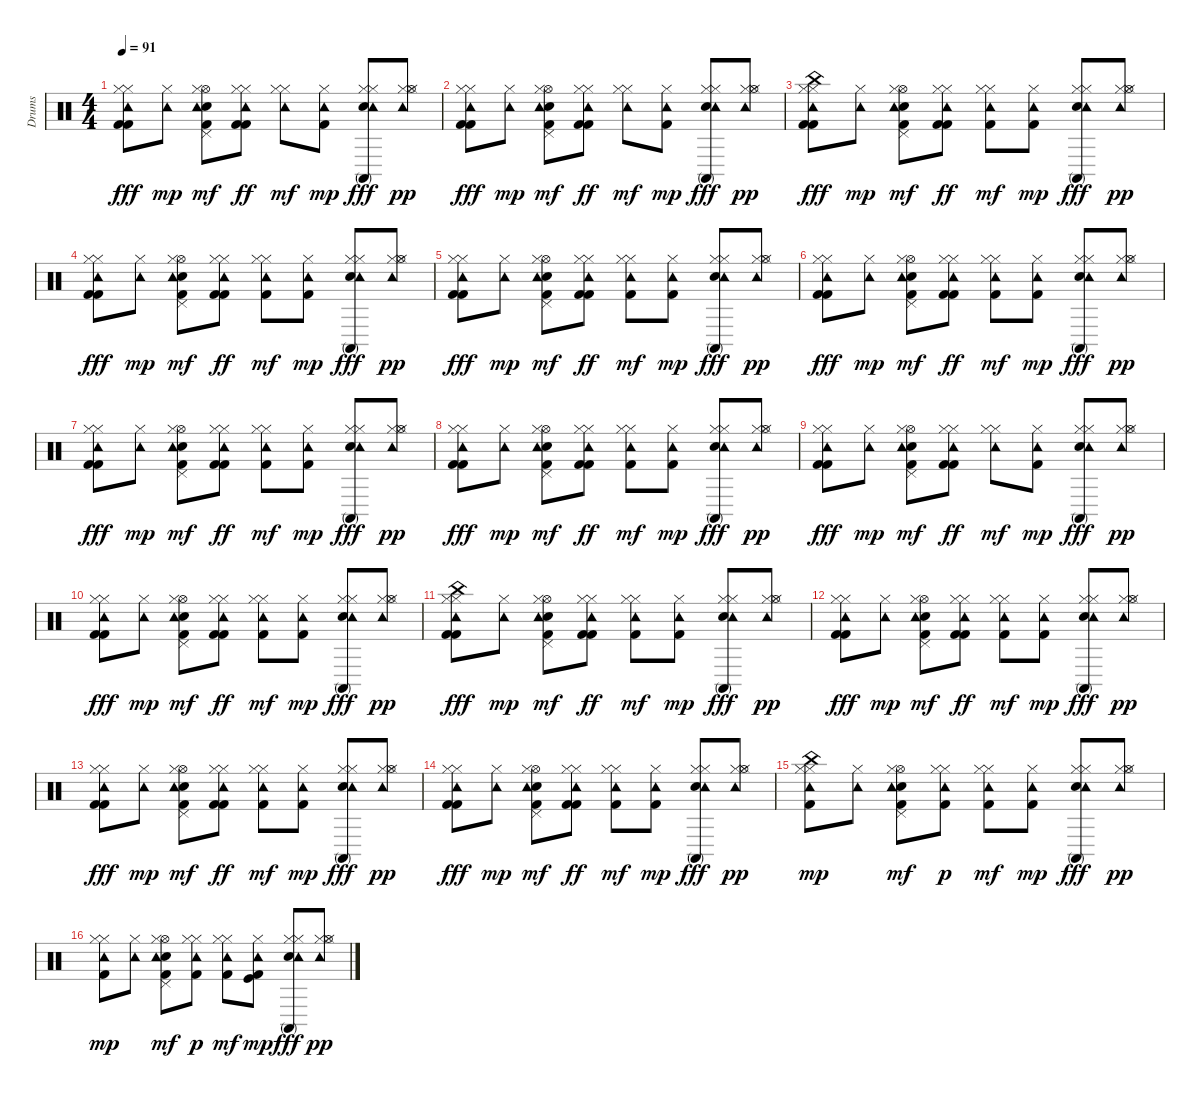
\track ("Drums" "Drums") {instrument percussion}
\staff {score}
\articulation defaults
\ts (4 4)
\tempo 91
\clef neutral
\ks c
("Hi-Hat (closed)" "Kick (hit) 2" "Hi-Hat (closed)" "Tambourine (hit)" "Kick (hit) 2").8{dy fff} ("Hi-Hat (closed)" "Tambourine (hit)").8{dy mp} ("Kick (hit) 2" "Pedal Hi-Hat (hit)" "Hi-Hat (open)" "Snare (hit) 2" "Hi-Hat (closed)" "Tambourine (hit)").8{dy mf} ("Hi-Hat (closed)" "Kick (hit) 2" "Hi-Hat (closed)" "Tambourine (hit)" "Kick (hit) 2").8{dy ff} ("Hi-Hat (closed)" "Hi-Hat (closed)" "Tambourine (hit)").8{dy mf} ("Kick (hit) 2" "Hi-Hat (closed)" "Tambourine (hit)").8{dy mp} ("Hi-Hat (closed)" "Snare (hit) 2" "Hi-Hat (closed)" "Tambourine (hit)" "Conga high (mute)").8{dy fff} ("Hi-Hat (closed)" "Hi-Hat (closed)" "Hi-Hat (open)" "Tambourine (hit)").8{dy pp} |
("Hi-Hat (closed)" "Kick (hit) 2" "Hi-Hat (closed)" "Tambourine (hit)" "Kick (hit) 2").8{dy fff} ("Hi-Hat (closed)" "Tambourine (hit)").8{dy mp} ("Kick (hit) 2" "Pedal Hi-Hat (hit)" "Hi-Hat (open)" "Snare (hit) 2" "Hi-Hat (closed)" "Tambourine (hit)").8{dy mf} ("Hi-Hat (closed)" "Kick (hit) 2" "Hi-Hat (closed)" "Tambourine (hit)" "Kick (hit) 2").8{dy ff} ("Hi-Hat (closed)" "Hi-Hat (closed)" "Tambourine (hit)").8{dy mf} ("Kick (hit) 2" "Hi-Hat (closed)" "Tambourine (hit)").8{dy mp} ("Hi-Hat (closed)" "Snare (hit) 2" "Hi-Hat (closed)" "Tambourine (hit)" "Conga high (mute)").8{dy fff} ("Hi-Hat (closed)" "Hi-Hat (closed)" "Hi-Hat (open)" "Tambourine (hit)").8{dy pp} |
("Hi-Hat (closed)" "Kick (hit) 2" "Hi-Hat (closed)" "China (hit)" "Tambourine (hit)" "Kick (hit) 2").8{dy fff} ("Hi-Hat (closed)" "Tambourine (hit)").8{dy mp} ("Kick (hit) 2" "Pedal Hi-Hat (hit)" "Hi-Hat (open)" "Snare (hit) 2" "Hi-Hat (closed)" "Tambourine (hit)").8{dy mf} ("Hi-Hat (closed)" "Kick (hit) 2" "Hi-Hat (closed)" "Tambourine (hit)" "Kick (hit) 2").8{dy ff} ("Hi-Hat (closed)" "Kick (hit) 2" "Hi-Hat (closed)" "Tambourine (hit)").8{dy mf} ("Kick (hit) 2" "Hi-Hat (closed)" "Tambourine (hit)").8{dy mp} ("Hi-Hat (closed)" "Snare (hit) 2" "Hi-Hat (closed)" "Tambourine (hit)" "Conga high (mute)").8{dy fff} ("Hi-Hat (closed)" "Hi-Hat (closed)" "Hi-Hat (open)" "Tambourine (hit)").8{dy pp} |
("Hi-Hat (closed)" "Kick (hit) 2" "Hi-Hat (closed)" "Tambourine (hit)" "Kick (hit) 2").8{dy fff} ("Hi-Hat (closed)" "Tambourine (hit)").8{dy mp} ("Kick (hit) 2" "Pedal Hi-Hat (hit)" "Hi-Hat (open)" "Snare (hit) 2" "Hi-Hat (closed)" "Tambourine (hit)").8{dy mf} ("Hi-Hat (closed)" "Kick (hit) 2" "Hi-Hat (closed)" "Tambourine (hit)" "Kick (hit) 2").8{dy ff} ("Hi-Hat (closed)" "Kick (hit) 2" "Hi-Hat (closed)" "Tambourine (hit)").8{dy mf} ("Kick (hit) 2" "Hi-Hat (closed)" "Tambourine (hit)").8{dy mp} ("Hi-Hat (closed)" "Snare (hit) 2" "Hi-Hat (closed)" "Tambourine (hit)" "Conga high (mute)").8{dy fff} ("Hi-Hat (closed)" "Hi-Hat (closed)" "Hi-Hat (open)" "Tambourine (hit)").8{dy pp} |
("Hi-Hat (closed)" "Kick (hit) 2" "Hi-Hat (closed)" "Tambourine (hit)" "Kick (hit) 2").8{dy fff} ("Hi-Hat (closed)" "Tambourine (hit)").8{dy mp} ("Kick (hit) 2" "Pedal Hi-Hat (hit)" "Hi-Hat (open)" "Snare (hit) 2" "Hi-Hat (closed)" "Tambourine (hit)").8{dy mf} ("Hi-Hat (closed)" "Kick (hit) 2" "Hi-Hat (closed)" "Tambourine (hit)" "Kick (hit) 2").8{dy ff} ("Hi-Hat (closed)" "Kick (hit) 2" "Hi-Hat (closed)" "Tambourine (hit)").8{dy mf} ("Kick (hit) 2" "Hi-Hat (closed)" "Tambourine (hit)").8{dy mp} ("Hi-Hat (closed)" "Snare (hit) 2" "Hi-Hat (closed)" "Tambourine (hit)" "Conga high (mute)").8{dy fff} ("Hi-Hat (closed)" "Hi-Hat (closed)" "Hi-Hat (open)" "Tambourine (hit)").8{dy pp} |
("Hi-Hat (closed)" "Kick (hit) 2" "Hi-Hat (closed)" "Tambourine (hit)" "Kick (hit) 2").8{dy fff} ("Hi-Hat (closed)" "Tambourine (hit)").8{dy mp} ("Kick (hit) 2" "Pedal Hi-Hat (hit)" "Hi-Hat (open)" "Snare (hit) 2" "Hi-Hat (closed)" "Tambourine (hit)").8{dy mf} ("Hi-Hat (closed)" "Kick (hit) 2" "Hi-Hat (closed)" "Tambourine (hit)" "Kick (hit) 2").8{dy ff} ("Hi-Hat (closed)" "Kick (hit) 2" "Hi-Hat (closed)" "Tambourine (hit)").8{dy mf} ("Kick (hit) 2" "Hi-Hat (closed)" "Tambourine (hit)").8{dy mp} ("Hi-Hat (closed)" "Snare (hit) 2" "Hi-Hat (closed)" "Tambourine (hit)" "Conga high (mute)").8{dy fff} ("Hi-Hat (closed)" "Hi-Hat (closed)" "Hi-Hat (open)" "Tambourine (hit)").8{dy pp} |
("Hi-Hat (closed)" "Kick (hit) 2" "Hi-Hat (closed)" "Tambourine (hit)" "Kick (hit) 2").8{dy fff} ("Hi-Hat (closed)" "Tambourine (hit)").8{dy mp} ("Kick (hit) 2" "Pedal Hi-Hat (hit)" "Hi-Hat (open)" "Snare (hit) 2" "Hi-Hat (closed)" "Tambourine (hit)").8{dy mf} ("Hi-Hat (closed)" "Kick (hit) 2" "Hi-Hat (closed)" "Tambourine (hit)" "Kick (hit) 2").8{dy ff} ("Hi-Hat (closed)" "Kick (hit) 2" "Hi-Hat (closed)" "Tambourine (hit)").8{dy mf} ("Kick (hit) 2" "Hi-Hat (closed)" "Tambourine (hit)").8{dy mp} ("Hi-Hat (closed)" "Snare (hit) 2" "Hi-Hat (closed)" "Tambourine (hit)" "Conga high (mute)").8{dy fff} ("Hi-Hat (closed)" "Hi-Hat (closed)" "Hi-Hat (open)" "Tambourine (hit)").8{dy pp} |
("Hi-Hat (closed)" "Kick (hit) 2" "Hi-Hat (closed)" "Tambourine (hit)" "Kick (hit) 2").8{dy fff} ("Hi-Hat (closed)" "Tambourine (hit)").8{dy mp} ("Kick (hit) 2" "Pedal Hi-Hat (hit)" "Hi-Hat (open)" "Snare (hit) 2" "Hi-Hat (closed)" "Tambourine (hit)").8{dy mf} ("Hi-Hat (closed)" "Kick (hit) 2" "Hi-Hat (closed)" "Tambourine (hit)" "Kick (hit) 2").8{dy ff} ("Hi-Hat (closed)" "Kick (hit) 2" "Hi-Hat (closed)" "Tambourine (hit)").8{dy mf} ("Kick (hit) 2" "Hi-Hat (closed)" "Tambourine (hit)").8{dy mp} ("Hi-Hat (closed)" "Snare (hit) 2" "Hi-Hat (closed)" "Tambourine (hit)" "Conga high (mute)").8{dy fff} ("Hi-Hat (closed)" "Hi-Hat (closed)" "Hi-Hat (open)" "Tambourine (hit)").8{dy pp} |
("Hi-Hat (closed)" "Kick (hit) 2" "Hi-Hat (closed)" "Tambourine (hit)" "Kick (hit) 2").8{dy fff} ("Hi-Hat (closed)" "Tambourine (hit)").8{dy mp} ("Kick (hit) 2" "Pedal Hi-Hat (hit)" "Hi-Hat (open)" "Snare (hit) 2" "Hi-Hat (closed)" "Tambourine (hit)").8{dy mf} ("Hi-Hat (closed)" "Kick (hit) 2" "Hi-Hat (closed)" "Tambourine (hit)" "Kick (hit) 2").8{dy ff} ("Hi-Hat (closed)" "Hi-Hat (closed)" "Tambourine (hit)").8{dy mf} ("Kick (hit) 2" "Hi-Hat (closed)" "Tambourine (hit)").8{dy mp} ("Hi-Hat (closed)" "Snare (hit) 2" "Hi-Hat (closed)" "Tambourine (hit)" "Conga high (mute)").8{dy fff} ("Hi-Hat (closed)" "Hi-Hat (closed)" "Hi-Hat (open)" "Tambourine (hit)").8{dy pp} |
("Hi-Hat (closed)" "Kick (hit) 2" "Hi-Hat (closed)" "Tambourine (hit)" "Kick (hit) 2").8{dy fff} ("Hi-Hat (closed)" "Tambourine (hit)").8{dy mp} ("Kick (hit) 2" "Pedal Hi-Hat (hit)" "Hi-Hat (open)" "Snare (hit) 2" "Hi-Hat (closed)" "Tambourine (hit)").8{dy mf} ("Hi-Hat (closed)" "Kick (hit) 2" "Hi-Hat (closed)" "Tambourine (hit)" "Kick (hit) 2").8{dy ff} ("Hi-Hat (closed)" "Kick (hit) 2" "Hi-Hat (closed)" "Tambourine (hit)").8{dy mf} ("Kick (hit) 2" "Hi-Hat (closed)" "Tambourine (hit)").8{dy mp} ("Hi-Hat (closed)" "Snare (hit) 2" "Hi-Hat (closed)" "Tambourine (hit)" "Conga high (mute)").8{dy fff} ("Hi-Hat (closed)" "Hi-Hat (closed)" "Hi-Hat (open)" "Tambourine (hit)").8{dy pp} |
("Hi-Hat (closed)" "Kick (hit) 2" "Hi-Hat (closed)" "China (hit)" "Tambourine (hit)" "Kick (hit) 2").8{dy fff} ("Hi-Hat (closed)" "Tambourine (hit)").8{dy mp} ("Kick (hit) 2" "Pedal Hi-Hat (hit)" "Hi-Hat (open)" "Snare (hit) 2" "Hi-Hat (closed)" "Tambourine (hit)").8{dy mf} ("Hi-Hat (closed)" "Kick (hit) 2" "Hi-Hat (closed)" "Tambourine (hit)" "Kick (hit) 2").8{dy ff} ("Hi-Hat (closed)" "Kick (hit) 2" "Hi-Hat (closed)" "Tambourine (hit)").8{dy mf} ("Kick (hit) 2" "Hi-Hat (closed)" "Tambourine (hit)").8{dy mp} ("Hi-Hat (closed)" "Snare (hit) 2" "Hi-Hat (closed)" "Tambourine (hit)" "Conga high (mute)").8{dy fff} ("Hi-Hat (closed)" "Hi-Hat (closed)" "Hi-Hat (open)" "Tambourine (hit)").8{dy pp} |
("Hi-Hat (closed)" "Kick (hit) 2" "Hi-Hat (closed)" "Tambourine (hit)" "Kick (hit) 2").8{dy fff} ("Hi-Hat (closed)" "Tambourine (hit)").8{dy mp} ("Kick (hit) 2" "Pedal Hi-Hat (hit)" "Hi-Hat (open)" "Snare (hit) 2" "Hi-Hat (closed)" "Tambourine (hit)").8{dy mf} ("Hi-Hat (closed)" "Kick (hit) 2" "Hi-Hat (closed)" "Tambourine (hit)" "Kick (hit) 2").8{dy ff} ("Hi-Hat (closed)" "Kick (hit) 2" "Hi-Hat (closed)" "Tambourine (hit)").8{dy mf} ("Kick (hit) 2" "Hi-Hat (closed)" "Tambourine (hit)").8{dy mp} ("Hi-Hat (closed)" "Snare (hit) 2" "Hi-Hat (closed)" "Tambourine (hit)" "Conga high (mute)").8{dy fff} ("Hi-Hat (closed)" "Hi-Hat (closed)" "Hi-Hat (open)" "Tambourine (hit)").8{dy pp} |
("Hi-Hat (closed)" "Kick (hit) 2" "Hi-Hat (closed)" "Tambourine (hit)" "Kick (hit) 2").8{dy fff} ("Hi-Hat (closed)" "Tambourine (hit)").8{dy mp} ("Kick (hit) 2" "Pedal Hi-Hat (hit)" "Hi-Hat (open)" "Snare (hit) 2" "Hi-Hat (closed)" "Tambourine (hit)").8{dy mf} ("Hi-Hat (closed)" "Kick (hit) 2" "Hi-Hat (closed)" "Tambourine (hit)" "Kick (hit) 2").8{dy ff} ("Hi-Hat (closed)" "Kick (hit) 2" "Hi-Hat (closed)" "Tambourine (hit)").8{dy mf} ("Kick (hit) 2" "Hi-Hat (closed)" "Tambourine (hit)").8{dy mp} ("Hi-Hat (closed)" "Snare (hit) 2" "Hi-Hat (closed)" "Tambourine (hit)" "Conga high (mute)").8{dy fff} ("Hi-Hat (closed)" "Hi-Hat (closed)" "Hi-Hat (open)" "Tambourine (hit)").8{dy pp} |
("Hi-Hat (closed)" "Kick (hit) 2" "Hi-Hat (closed)" "Tambourine (hit)" "Kick (hit) 2").8{dy fff} ("Hi-Hat (closed)" "Tambourine (hit)").8{dy mp} ("Kick (hit) 2" "Pedal Hi-Hat (hit)" "Hi-Hat (open)" "Snare (hit) 2" "Hi-Hat (closed)" "Tambourine (hit)").8{dy mf} ("Hi-Hat (closed)" "Kick (hit) 2" "Hi-Hat (closed)" "Tambourine (hit)" "Kick (hit) 2").8{dy ff} ("Hi-Hat (closed)" "Kick (hit) 2" "Hi-Hat (closed)" "Tambourine (hit)").8{dy mf} ("Kick (hit) 2" "Hi-Hat (closed)" "Tambourine (hit)").8{dy mp} ("Hi-Hat (closed)" "Snare (hit) 2" "Hi-Hat (closed)" "Tambourine (hit)" "Conga high (mute)").8{dy fff} ("Hi-Hat (closed)" "Hi-Hat (closed)" "Hi-Hat (open)" "Tambourine (hit)").8{dy pp} |
("Hi-Hat (closed)" "Kick (hit) 2" "Hi-Hat (closed)" "China (hit)" "Tambourine (hit)").8{dy mp} ("Hi-Hat (closed)" "Tambourine (hit)").8 ("Kick (hit) 2" "Pedal Hi-Hat (hit)" "Hi-Hat (open)" "Snare (hit) 2" "Hi-Hat (closed)" "Tambourine (hit)").8{dy mf} ("Hi-Hat (closed)" "Kick (hit) 2" "Hi-Hat (closed)" "Tambourine (hit)").8{dy p} ("Hi-Hat (closed)" "Kick (hit) 2" "Hi-Hat (closed)" "Tambourine (hit)").8{dy mf} ("Kick (hit) 2" "Hi-Hat (closed)" "Tambourine (hit)").8{dy mp} ("Hi-Hat (closed)" "Snare (hit) 2" "Hi-Hat (closed)" "Tambourine (hit)" "Conga high (mute)").8{dy fff} ("Hi-Hat (closed)" "Hi-Hat (closed)" "Hi-Hat (open)" "Tambourine (hit)").8{dy pp} |
("Hi-Hat (closed)" "Kick (hit) 2" "Hi-Hat (closed)" "Tambourine (hit)").8{dy mp} ("Hi-Hat (closed)" "Tambourine (hit)").8 ("Kick (hit) 2" "Pedal Hi-Hat (hit)" "Hi-Hat (open)" "Snare (hit) 2" "Hi-Hat (closed)" "Tambourine (hit)").8{dy mf} ("Hi-Hat (closed)" "Kick (hit) 2" "Hi-Hat (closed)" "Tambourine (hit)").8{dy p} ("Hi-Hat (closed)" "Kick (hit) 2" "Hi-Hat (closed)" "Tambourine (hit)").8{dy mf} ("Kick (hit)" "Kick (hit) 2" "Hi-Hat (closed)" "Tambourine (hit)").8{dy mp} ("Hi-Hat (closed)" "Snare (hit) 2" "Hi-Hat (closed)" "Tambourine (hit)" "Conga high (mute)").8{dy fff} ("Hi-Hat (closed)" "Hi-Hat (closed)" "Hi-Hat (open)" "Tambourine (hit)").8{dy pp}
